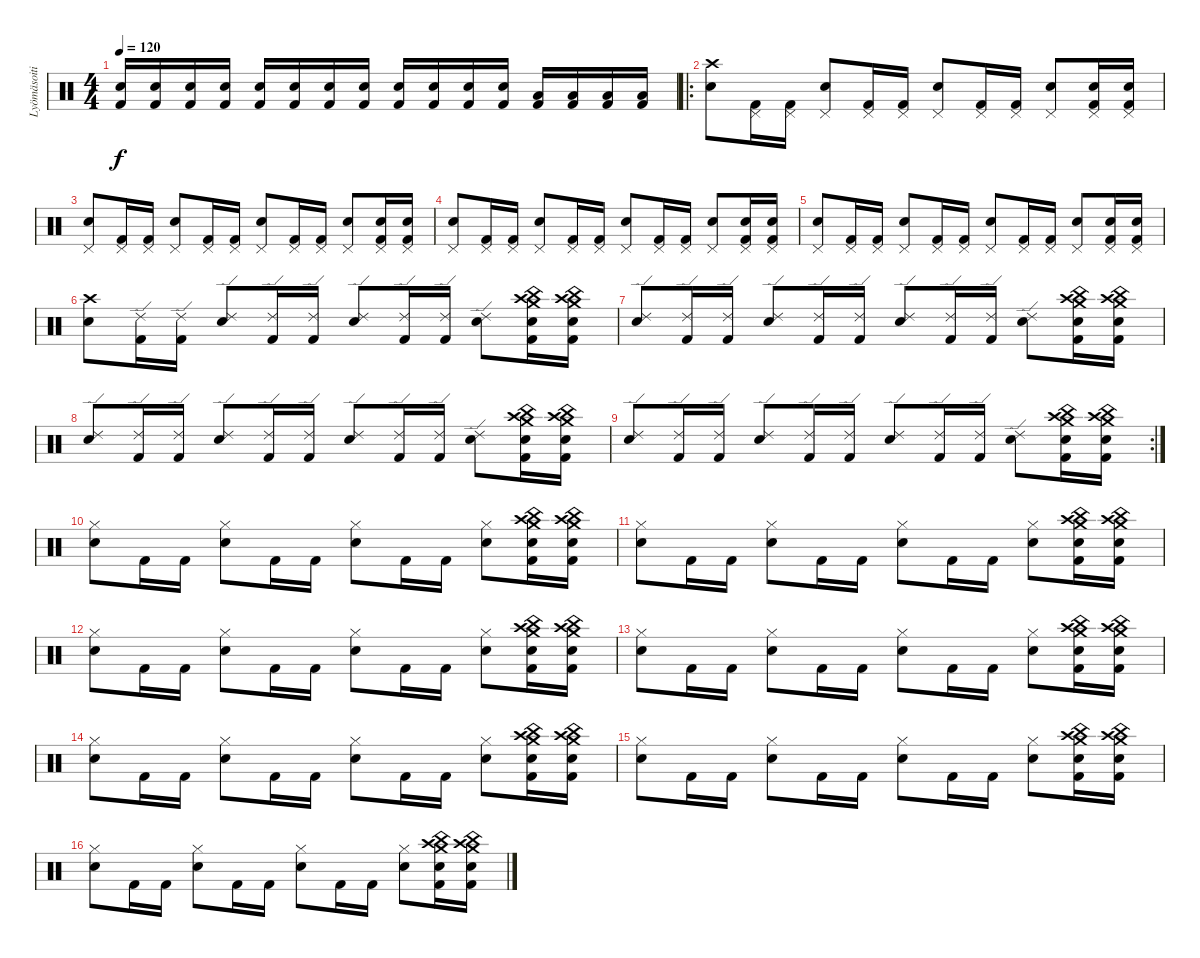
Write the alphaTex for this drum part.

\track ("Lyömäsoitin" "Lyömäsoiti") {instrument percussion}
\staff {score}
\articulation defaults
\ts (4 4)
\tempo 120
\clef neutral
\ks c
("Snare (hit) 2" "Kick (hit) 2").16{dy f} ("Snare (hit) 2" "Kick (hit) 2").16 ("Snare (hit) 2" "Kick (hit) 2").16 ("Snare (hit) 2" "Kick (hit) 2").16 ("Snare (hit) 2" "Kick (hit) 2").16 ("Snare (hit) 2" "Kick (hit) 2").16 ("Snare (hit) 2" "Kick (hit) 2").16 ("Snare (hit) 2" "Kick (hit) 2").16 ("Snare (hit) 2" "Kick (hit) 2").16 ("Snare (hit) 2" "Kick (hit) 2").16 ("Snare (hit) 2" "Kick (hit) 2").16 ("Snare (hit) 2" "Kick (hit) 2").16 ("Low Floor Tom (hit)" "Kick (hit) 2").16 ("Low Floor Tom (hit)" "Kick (hit) 2").16 ("Low Floor Tom (hit)" "Kick (hit) 2").16 ("Low Floor Tom (hit)" "Kick (hit) 2").16 |
\ro
("Crash high (hit)" "Snare (hit) 2").8 ("Pedal Hi-Hat (hit)" "Kick (hit) 2").16 ("Pedal Hi-Hat (hit)" "Kick (hit) 2").16 ("Pedal Hi-Hat (hit)" "Snare (hit) 2").8 ("Pedal Hi-Hat (hit)" "Kick (hit) 2").16 ("Pedal Hi-Hat (hit)" "Kick (hit) 2").16 ("Pedal Hi-Hat (hit)" "Snare (hit) 2").8 ("Pedal Hi-Hat (hit)" "Kick (hit) 2").16 ("Pedal Hi-Hat (hit)" "Kick (hit) 2").16 ("Pedal Hi-Hat (hit)" "Snare (hit) 2").8 ("Pedal Hi-Hat (hit)" "Snare (hit) 2" "Kick (hit) 2").16 ("Pedal Hi-Hat (hit)" "Snare (hit) 2" "Kick (hit) 2").16 |
("Pedal Hi-Hat (hit)" "Snare (hit) 2").8 ("Pedal Hi-Hat (hit)" "Kick (hit) 2").16 ("Pedal Hi-Hat (hit)" "Kick (hit) 2").16 ("Pedal Hi-Hat (hit)" "Snare (hit) 2").8 ("Pedal Hi-Hat (hit)" "Kick (hit) 2").16 ("Pedal Hi-Hat (hit)" "Kick (hit) 2").16 ("Pedal Hi-Hat (hit)" "Snare (hit) 2").8 ("Pedal Hi-Hat (hit)" "Kick (hit) 2").16 ("Pedal Hi-Hat (hit)" "Kick (hit) 2").16 ("Pedal Hi-Hat (hit)" "Snare (hit) 2").8 ("Pedal Hi-Hat (hit)" "Snare (hit) 2" "Kick (hit) 2").16 ("Pedal Hi-Hat (hit)" "Snare (hit) 2" "Kick (hit) 2").16 |
("Pedal Hi-Hat (hit)" "Snare (hit) 2").8 ("Pedal Hi-Hat (hit)" "Kick (hit) 2").16 ("Pedal Hi-Hat (hit)" "Kick (hit) 2").16 ("Pedal Hi-Hat (hit)" "Snare (hit) 2").8 ("Pedal Hi-Hat (hit)" "Kick (hit) 2").16 ("Pedal Hi-Hat (hit)" "Kick (hit) 2").16 ("Pedal Hi-Hat (hit)" "Snare (hit) 2").8 ("Pedal Hi-Hat (hit)" "Kick (hit) 2").16 ("Pedal Hi-Hat (hit)" "Kick (hit) 2").16 ("Pedal Hi-Hat (hit)" "Snare (hit) 2").8 ("Pedal Hi-Hat (hit)" "Snare (hit) 2" "Kick (hit) 2").16 ("Pedal Hi-Hat (hit)" "Snare (hit) 2" "Kick (hit) 2").16 |
("Pedal Hi-Hat (hit)" "Snare (hit) 2").8 ("Pedal Hi-Hat (hit)" "Kick (hit) 2").16 ("Pedal Hi-Hat (hit)" "Kick (hit) 2").16 ("Pedal Hi-Hat (hit)" "Snare (hit) 2").8 ("Pedal Hi-Hat (hit)" "Kick (hit) 2").16 ("Pedal Hi-Hat (hit)" "Kick (hit) 2").16 ("Pedal Hi-Hat (hit)" "Snare (hit) 2").8 ("Pedal Hi-Hat (hit)" "Kick (hit) 2").16 ("Pedal Hi-Hat (hit)" "Kick (hit) 2").16 ("Pedal Hi-Hat (hit)" "Snare (hit) 2").8 ("Pedal Hi-Hat (hit)" "Snare (hit) 2" "Kick (hit) 2").16 ("Pedal Hi-Hat (hit)" "Snare (hit) 2" "Kick (hit) 2").16 |
("Crash high (hit)" "Snare (hit) 2").8 ("Ride (edge) 2" "Kick (hit) 2").16 ("Ride (edge) 2" "Kick (hit) 2").16 ("Ride (edge) 2" "Snare (hit) 2").8 ("Ride (edge) 2" "Kick (hit) 2").16 ("Ride (edge) 2" "Kick (hit) 2").16 ("Ride (edge) 2" "Snare (hit) 2").8 ("Ride (edge) 2" "Kick (hit) 2").16 ("Ride (edge) 2" "Kick (hit) 2").16 ("Ride (edge) 2" "Snare (hit) 2").8 ("Crash high (hit)" "Crash medium (hit)" "China (hit)" "Snare (hit) 2" "Kick (hit) 2").16 ("Crash high (hit)" "Crash medium (hit)" "China (hit)" "Snare (hit) 2" "Kick (hit) 2").16 |
("Ride (edge) 2" "Snare (hit) 2").8 ("Ride (edge) 2" "Kick (hit) 2").16 ("Ride (edge) 2" "Kick (hit) 2").16 ("Ride (edge) 2" "Snare (hit) 2").8 ("Ride (edge) 2" "Kick (hit) 2").16 ("Ride (edge) 2" "Kick (hit) 2").16 ("Ride (edge) 2" "Snare (hit) 2").8 ("Ride (edge) 2" "Kick (hit) 2").16 ("Ride (edge) 2" "Kick (hit) 2").16 ("Ride (edge) 2" "Snare (hit) 2").8 ("Crash high (hit)" "Crash medium (hit)" "China (hit)" "Snare (hit) 2" "Kick (hit) 2").16 ("Crash high (hit)" "Crash medium (hit)" "China (hit)" "Snare (hit) 2" "Kick (hit) 2").16 |
("Ride (edge) 2" "Snare (hit) 2").8 ("Ride (edge) 2" "Kick (hit) 2").16 ("Ride (edge) 2" "Kick (hit) 2").16 ("Ride (edge) 2" "Snare (hit) 2").8 ("Ride (edge) 2" "Kick (hit) 2").16 ("Ride (edge) 2" "Kick (hit) 2").16 ("Ride (edge) 2" "Snare (hit) 2").8 ("Ride (edge) 2" "Kick (hit) 2").16 ("Ride (edge) 2" "Kick (hit) 2").16 ("Ride (edge) 2" "Snare (hit) 2").8 ("Crash high (hit)" "Crash medium (hit)" "China (hit)" "Snare (hit) 2" "Kick (hit) 2").16 ("Crash high (hit)" "Crash medium (hit)" "China (hit)" "Snare (hit) 2" "Kick (hit) 2").16 |
\rc 2
("Ride (edge) 2" "Snare (hit) 2").8 ("Ride (edge) 2" "Kick (hit) 2").16 ("Ride (edge) 2" "Kick (hit) 2").16 ("Ride (edge) 2" "Snare (hit) 2").8 ("Ride (edge) 2" "Kick (hit) 2").16 ("Ride (edge) 2" "Kick (hit) 2").16 ("Ride (edge) 2" "Snare (hit) 2").8 ("Ride (edge) 2" "Kick (hit) 2").16 ("Ride (edge) 2" "Kick (hit) 2").16 ("Ride (edge) 2" "Snare (hit) 2").8 ("Crash high (hit)" "Crash medium (hit)" "China (hit)" "Snare (hit) 2" "Kick (hit) 2").16 ("Crash high (hit)" "Crash medium (hit)" "China (hit)" "Snare (hit) 2" "Kick (hit) 2").16 |
("Hi-Hat (closed)" "Snare (hit) 2").8 "Kick (hit) 2".16 "Kick (hit) 2".16 ("Hi-Hat (closed)" "Snare (hit) 2").8 "Kick (hit) 2".16 "Kick (hit) 2".16 ("Hi-Hat (closed)" "Snare (hit) 2").8 "Kick (hit) 2".16 "Kick (hit) 2".16 ("Hi-Hat (closed)" "Snare (hit) 2").8 ("Crash high (hit)" "Crash medium (hit)" "China (hit)" "Snare (hit) 2" "Kick (hit) 2").16 ("Crash high (hit)" "Crash medium (hit)" "China (hit)" "Snare (hit) 2" "Kick (hit) 2").16 |
("Hi-Hat (closed)" "Snare (hit) 2").8 "Kick (hit) 2".16 "Kick (hit) 2".16 ("Hi-Hat (closed)" "Snare (hit) 2").8 "Kick (hit) 2".16 "Kick (hit) 2".16 ("Hi-Hat (closed)" "Snare (hit) 2").8 "Kick (hit) 2".16 "Kick (hit) 2".16 ("Hi-Hat (closed)" "Snare (hit) 2").8 ("Crash high (hit)" "Crash medium (hit)" "China (hit)" "Snare (hit) 2" "Kick (hit) 2").16 ("Crash high (hit)" "Crash medium (hit)" "China (hit)" "Snare (hit) 2" "Kick (hit) 2").16 |
("Hi-Hat (closed)" "Snare (hit) 2").8 "Kick (hit) 2".16 "Kick (hit) 2".16 ("Hi-Hat (closed)" "Snare (hit) 2").8 "Kick (hit) 2".16 "Kick (hit) 2".16 ("Hi-Hat (closed)" "Snare (hit) 2").8 "Kick (hit) 2".16 "Kick (hit) 2".16 ("Hi-Hat (closed)" "Snare (hit) 2").8 ("Crash high (hit)" "Crash medium (hit)" "China (hit)" "Snare (hit) 2" "Kick (hit) 2").16 ("Crash high (hit)" "Crash medium (hit)" "China (hit)" "Snare (hit) 2" "Kick (hit) 2").16 |
("Hi-Hat (closed)" "Snare (hit) 2").8 "Kick (hit) 2".16 "Kick (hit) 2".16 ("Hi-Hat (closed)" "Snare (hit) 2").8 "Kick (hit) 2".16 "Kick (hit) 2".16 ("Hi-Hat (closed)" "Snare (hit) 2").8 "Kick (hit) 2".16 "Kick (hit) 2".16 ("Hi-Hat (closed)" "Snare (hit) 2").8 ("Crash high (hit)" "Crash medium (hit)" "China (hit)" "Snare (hit) 2" "Kick (hit) 2").16 ("Crash high (hit)" "Crash medium (hit)" "China (hit)" "Snare (hit) 2" "Kick (hit) 2").16 |
("Hi-Hat (closed)" "Snare (hit) 2").8 "Kick (hit) 2".16 "Kick (hit) 2".16 ("Hi-Hat (closed)" "Snare (hit) 2").8 "Kick (hit) 2".16 "Kick (hit) 2".16 ("Hi-Hat (closed)" "Snare (hit) 2").8 "Kick (hit) 2".16 "Kick (hit) 2".16 ("Hi-Hat (closed)" "Snare (hit) 2").8 ("Crash high (hit)" "Crash medium (hit)" "China (hit)" "Snare (hit) 2" "Kick (hit) 2").16 ("Crash high (hit)" "Crash medium (hit)" "China (hit)" "Snare (hit) 2" "Kick (hit) 2").16 |
("Hi-Hat (closed)" "Snare (hit) 2").8 "Kick (hit) 2".16 "Kick (hit) 2".16 ("Hi-Hat (closed)" "Snare (hit) 2").8 "Kick (hit) 2".16 "Kick (hit) 2".16 ("Hi-Hat (closed)" "Snare (hit) 2").8 "Kick (hit) 2".16 "Kick (hit) 2".16 ("Hi-Hat (closed)" "Snare (hit) 2").8 ("Crash high (hit)" "Crash medium (hit)" "China (hit)" "Snare (hit) 2" "Kick (hit) 2").16 ("Crash high (hit)" "Crash medium (hit)" "China (hit)" "Snare (hit) 2" "Kick (hit) 2").16 |
("Hi-Hat (closed)" "Snare (hit) 2").8 "Kick (hit) 2".16 "Kick (hit) 2".16 ("Hi-Hat (closed)" "Snare (hit) 2").8 "Kick (hit) 2".16 "Kick (hit) 2".16 ("Hi-Hat (closed)" "Snare (hit) 2").8 "Kick (hit) 2".16 "Kick (hit) 2".16 ("Hi-Hat (closed)" "Snare (hit) 2").8 ("Crash high (hit)" "Crash medium (hit)" "China (hit)" "Snare (hit) 2" "Kick (hit) 2").16 ("Crash high (hit)" "Crash medium (hit)" "China (hit)" "Snare (hit) 2" "Kick (hit) 2").16
